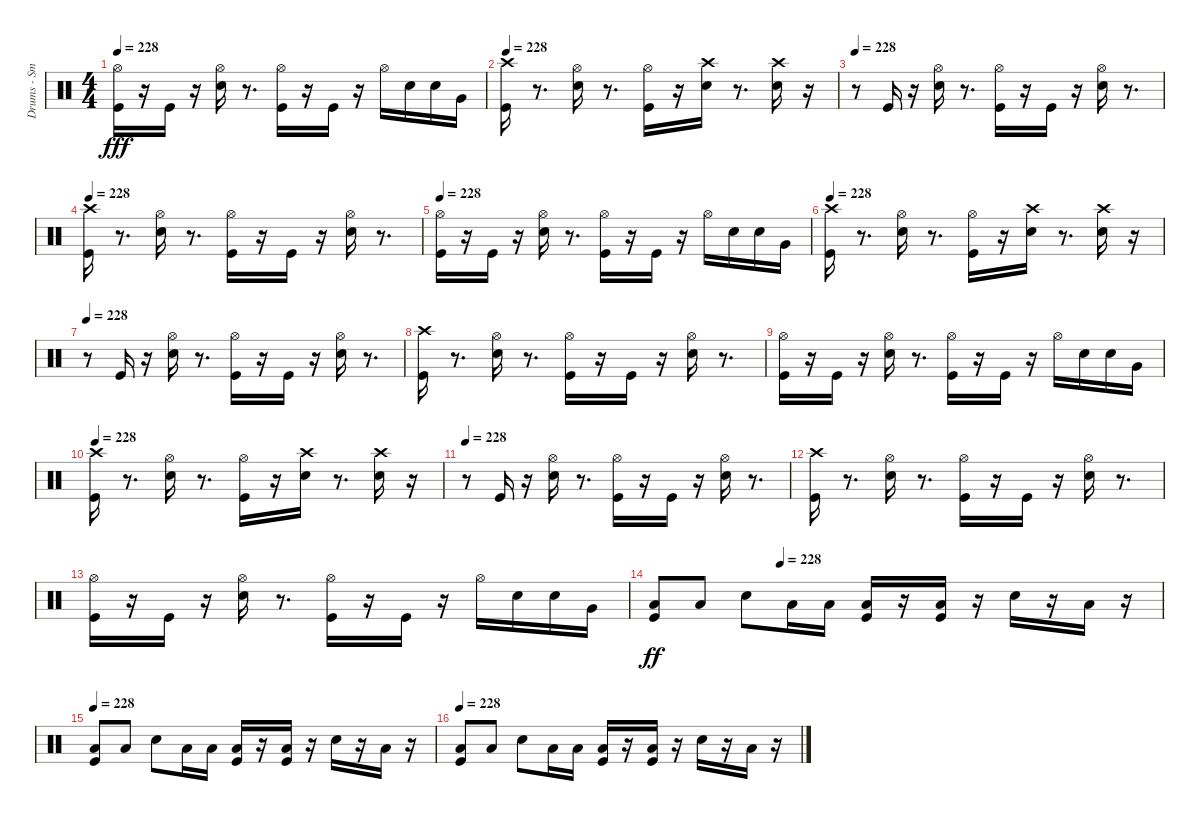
\track ("Drums - Smelly" "Drums - Sm") {instrument percussion}
\staff {score}
\articulation defaults
\ts (4 4)
\tempo 228
\clef neutral
\ks c
("Kick (hit)" "Hi-Hat (open)").16{dy fff} r.16 "Kick (hit)".16 r.16 ("Hi-Hat (open)" "Electric Snare (hit)").16 r.8{d} ("Kick (hit)" "Hi-Hat (open)").16 r.16 "Kick (hit)".16 r.16 "Hi-Hat (open)".16 "Electric Snare (hit)".16 "Electric Snare (hit)".16 "Very Low Tom (hit)".16 |
\tempo 228
("Crash high (hit)" "Kick (hit)").16 r.8{d} ("Electric Snare (hit)" "Hi-Hat (open)").16 r.8{d} ("Hi-Hat (open)" "Kick (hit)").16 r.16 ("Crash high (hit)" "Electric Snare (hit)").16 r.8{d} ("Crash high (hit)" "Electric Snare (hit)").16 r.16 |
\tempo 228
r.8 "Kick (hit)".16 r.16 ("Electric Snare (hit)" "Hi-Hat (open)").16 r.8{d} ("Kick (hit)" "Hi-Hat (open)").16 r.16 "Kick (hit)".16 r.16 ("Hi-Hat (open)" "Electric Snare (hit)").16 r.8{d} |
\tempo 228
("Kick (hit)" "Crash high (hit)").16 r.8{d} ("Electric Snare (hit)" "Hi-Hat (open)").16 r.8{d} ("Hi-Hat (open)" "Kick (hit)").16 r.16 "Kick (hit)".16 r.16 ("Hi-Hat (open)" "Electric Snare (hit)").16 r.8{d} |
\tempo 228
("Kick (hit)" "Hi-Hat (open)").16 r.16 "Kick (hit)".16 r.16 ("Electric Snare (hit)" "Hi-Hat (open)").16 r.8{d} ("Hi-Hat (open)" "Kick (hit)").16 r.16 "Kick (hit)".16 r.16 "Hi-Hat (open)".16 "Electric Snare (hit)".16 "Electric Snare (hit)".16 "Very Low Tom (hit)".16 |
\tempo 228
("Kick (hit)" "Crash high (hit)").16 r.8{d} ("Hi-Hat (open)" "Electric Snare (hit)").16 r.8{d} ("Kick (hit)" "Hi-Hat (open)").16 r.16 ("Crash high (hit)" "Electric Snare (hit)").16 r.8{d} ("Electric Snare (hit)" "Crash high (hit)").16 r.16 |
\tempo 228
r.8 "Kick (hit)".16 r.16 ("Hi-Hat (open)" "Electric Snare (hit)").16 r.8{d} ("Kick (hit)" "Hi-Hat (open)").16 r.16 "Kick (hit)".16 r.16 ("Electric Snare (hit)" "Hi-Hat (open)").16 r.8{d} |
("Crash high (hit)" "Kick (hit)").16 r.8{d} ("Electric Snare (hit)" "Hi-Hat (open)").16 r.8{d} ("Kick (hit)" "Hi-Hat (open)").16 r.16 "Kick (hit)".16 r.16 ("Electric Snare (hit)" "Hi-Hat (open)").16 r.8{d} |
("Hi-Hat (open)" "Kick (hit)").16 r.16 "Kick (hit)".16 r.16 ("Hi-Hat (open)" "Electric Snare (hit)").16 r.8{d} ("Kick (hit)" "Hi-Hat (open)").16 r.16 "Kick (hit)".16 r.16 "Hi-Hat (open)".16 "Electric Snare (hit)".16 "Electric Snare (hit)".16 "Very Low Tom (hit)".16 |
\tempo 228
("Crash high (hit)" "Kick (hit)").16 r.8{d} ("Electric Snare (hit)" "Hi-Hat (open)").16 r.8{d} ("Hi-Hat (open)" "Kick (hit)").16 r.16 ("Crash high (hit)" "Electric Snare (hit)").16 r.8{d} ("Crash high (hit)" "Electric Snare (hit)").16 r.16 |
\tempo 228
r.8 "Kick (hit)".16 r.16 ("Electric Snare (hit)" "Hi-Hat (open)").16 r.8{d} ("Hi-Hat (open)" "Kick (hit)").16 r.16 "Kick (hit)".16 r.16 ("Hi-Hat (open)" "Electric Snare (hit)").16 r.8{d} |
("Kick (hit)" "Crash high (hit)").16 r.8{d} ("Electric Snare (hit)" "Hi-Hat (open)").16 r.8{d} ("Hi-Hat (open)" "Kick (hit)").16 r.16 "Kick (hit)".16 r.16 ("Hi-Hat (open)" "Electric Snare (hit)").16 r.8{d} |
("Kick (hit)" "Hi-Hat (open)").16 r.16 "Kick (hit)".16 r.16 ("Electric Snare (hit)" "Hi-Hat (open)").16 r.8{d} ("Hi-Hat (open)" "Kick (hit)").16 r.16 "Kick (hit)".16 r.16 "Hi-Hat (open)".16 "Electric Snare (hit)".16 "Electric Snare (hit)".16 "Very Low Tom (hit)".16 |
\tempo (228 0.25)
("Kick (hit)" "Low Floor Tom (hit)").8{dy ff} "Low Floor Tom (hit)".8 "Electric Snare (hit)".8 "Low Tom (hit)".16 "Low Tom (hit)".16 ("Kick (hit)" "Low Floor Tom (hit)").16 r.16 ("Kick (hit)" "Low Floor Tom (hit)").16 r.16 "Electric Snare (hit)".16 r.16 "Low Tom (hit)".16 r.16 |
\tempo 228
("Kick (hit)" "Low Floor Tom (hit)").8 "Low Floor Tom (hit)".8 "Electric Snare (hit)".8 "Low Tom (hit)".16 "Low Tom (hit)".16 ("Kick (hit)" "Low Floor Tom (hit)").16 r.16 ("Kick (hit)" "Low Floor Tom (hit)").16 r.16 "Electric Snare (hit)".16 r.16 "Low Tom (hit)".16 r.16 |
\tempo 228
("Kick (hit)" "Low Floor Tom (hit)").8 "Low Floor Tom (hit)".8 "Electric Snare (hit)".8 "Low Tom (hit)".16 "Low Tom (hit)".16 ("Kick (hit)" "Low Floor Tom (hit)").16 r.16 ("Low Floor Tom (hit)" "Kick (hit)").16 r.16 "Electric Snare (hit)".16 r.16 "Low Tom (hit)".16 r.16
